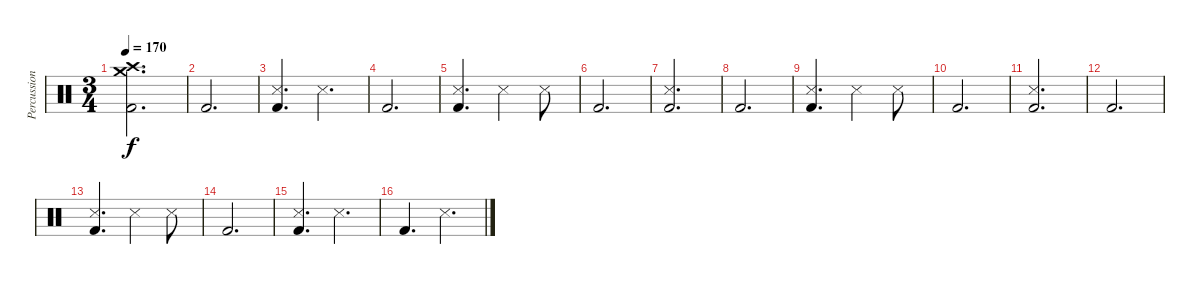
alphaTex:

\track ("Percussion" "Percussion") {instrument percussion}
\staff {score}
\articulation defaults
\ts (3 4)
\tempo 170
\clef neutral
\ks c
("Crash medium (hit)" "Crash high (hit)" "Kick (hit) 2").2{d dy f} |
"Kick (hit) 2".2{d} |
("Snare (side stick) 3" "Kick (hit) 2").4{d} "Snare (side stick) 3".4{d} |
"Kick (hit) 2".2{d} |
("Snare (side stick) 3" "Kick (hit) 2").4{d} "Snare (side stick) 3".4 "Snare (side stick) 3".8 |
"Kick (hit) 2".2{d} |
("Snare (side stick) 3" "Kick (hit) 2").2{d} |
"Kick (hit) 2".2{d} |
("Snare (side stick) 3" "Kick (hit) 2").4{d} "Snare (side stick) 3".4 "Snare (side stick) 3".8 |
"Kick (hit) 2".2{d} |
("Snare (side stick) 3" "Kick (hit) 2").2{d} |
"Kick (hit) 2".2{d} |
("Snare (side stick) 3" "Kick (hit) 2").4{d} "Snare (side stick) 3".4 "Snare (side stick) 3".8 |
"Kick (hit) 2".2{d} |
("Snare (side stick) 3" "Kick (hit) 2").4{d} "Snare (side stick) 3".4{d} |
"Kick (hit) 2".4{d} "Snare (side stick) 3".4{d}
